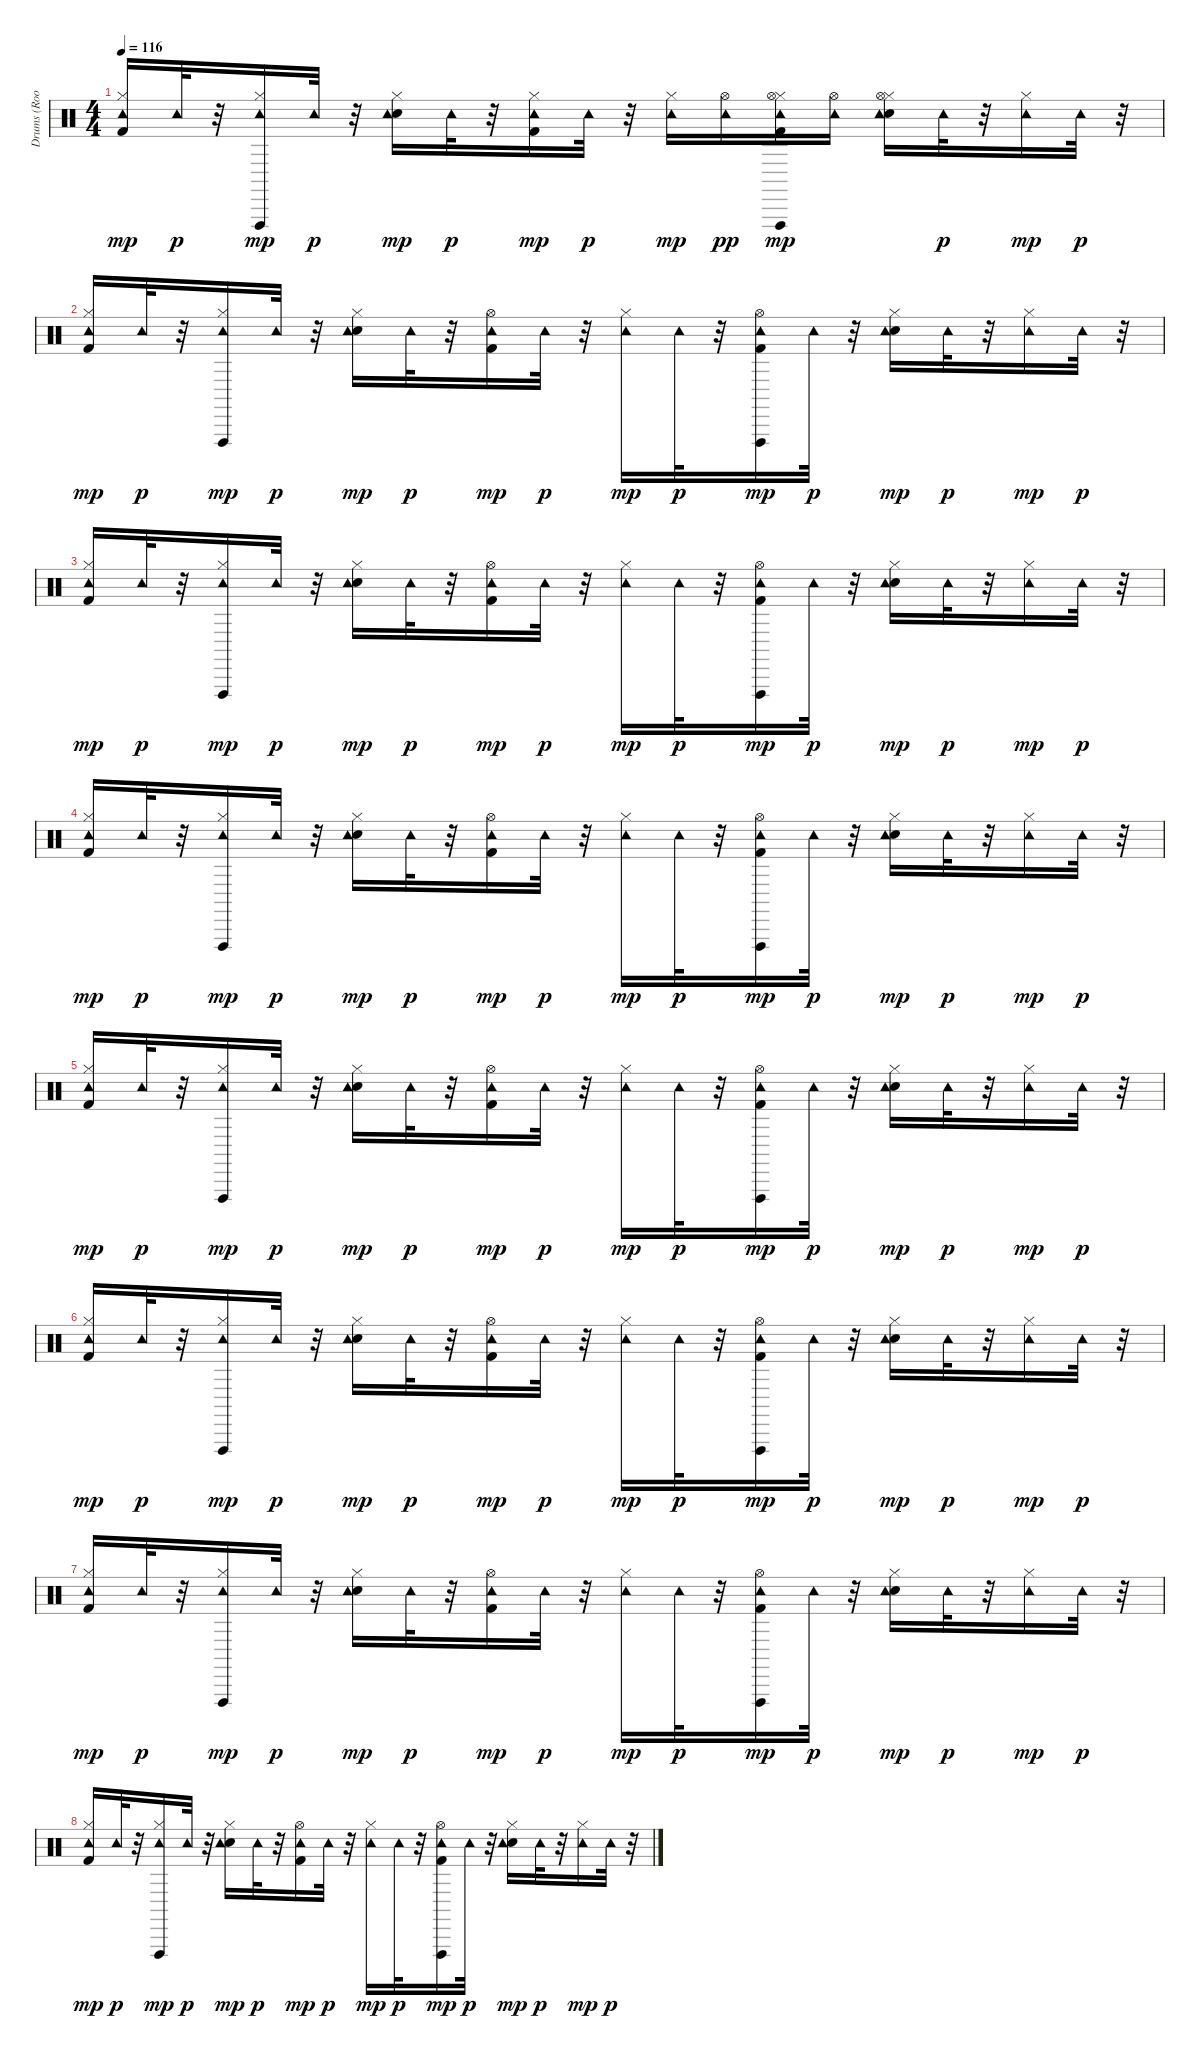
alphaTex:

\track ("Drums (Room Kit)    " "Drums (Roo") {instrument percussion}
\staff {score}
\articulation defaults
\ts (4 4)
\tempo 116
\clef neutral
\ks c
("Hi-Hat (closed)" "Kick (hit) 2" "Tambourine (hit)").16{dy mp} "Tambourine (hit)".32{dy p} r.32 ("Hi-Hat (closed)" "Tambourine (hit)" "Vibraslap (hit)").16{dy mp} "Tambourine (hit)".32{dy p} r.32 ("Hi-Hat (closed)" "Snare (hit) 2" "Tambourine (hit)").16{dy mp} "Tambourine (hit)".32{dy p} r.32 ("Hi-Hat (closed)" "Kick (hit) 2" "Tambourine (hit)").16{dy mp} "Tambourine (hit)".32{dy p} r.32 ("Hi-Hat (closed)" "Tambourine (hit)").16{dy mp} ("Tambourine (hit)" "Hi-Hat (open)").16{dy pp} ("Hi-Hat (closed)" "Kick (hit) 2" "Tambourine (hit)" "Hi-Hat (open)" "Vibraslap (hit)").16{dy mp} ("Tambourine (hit)" "Hi-Hat (open)").16 ("Hi-Hat (closed)" "Snare (hit) 2" "Tambourine (hit)" "Hi-Hat (open)").16 "Tambourine (hit)".32{dy p} r.32 ("Hi-Hat (closed)" "Tambourine (hit)").16{dy mp} "Tambourine (hit)".32{dy p} r.32 |
("Kick (hit) 2" "Hi-Hat (closed)" "Tambourine (hit)").16{dy mp} "Tambourine (hit)".32{dy p} r.32 ("Hi-Hat (closed)" "Tambourine (hit)" "Vibraslap (hit)").16{dy mp} "Tambourine (hit)".32{dy p} r.32 ("Snare (hit) 2" "Hi-Hat (closed)" "Tambourine (hit)").16{dy mp} "Tambourine (hit)".32{dy p} r.32 ("Kick (hit) 2" "Tambourine (hit)" "Hi-Hat (open)").16{dy mp} "Tambourine (hit)".32{dy p} r.32 ("Hi-Hat (closed)" "Tambourine (hit)").16{dy mp} "Tambourine (hit)".32{dy p} r.32 ("Kick (hit) 2" "Tambourine (hit)" "Vibraslap (hit)" "Hi-Hat (open)").16{dy mp} "Tambourine (hit)".32{dy p} r.32 ("Snare (hit) 2" "Hi-Hat (closed)" "Tambourine (hit)").16{dy mp} "Tambourine (hit)".32{dy p} r.32 ("Hi-Hat (closed)" "Tambourine (hit)").16{dy mp} "Tambourine (hit)".32{dy p} r.32 |
("Hi-Hat (closed)" "Kick (hit) 2" "Tambourine (hit)").16{dy mp} "Tambourine (hit)".32{dy p} r.32 ("Hi-Hat (closed)" "Tambourine (hit)" "Vibraslap (hit)").16{dy mp} "Tambourine (hit)".32{dy p} r.32 ("Hi-Hat (closed)" "Snare (hit) 2" "Tambourine (hit)").16{dy mp} "Tambourine (hit)".32{dy p} r.32 ("Kick (hit) 2" "Tambourine (hit)" "Hi-Hat (open)").16{dy mp} "Tambourine (hit)".32{dy p} r.32 ("Hi-Hat (closed)" "Tambourine (hit)").16{dy mp} "Tambourine (hit)".32{dy p} r.32 ("Kick (hit) 2" "Tambourine (hit)" "Vibraslap (hit)" "Hi-Hat (open)").16{dy mp} "Tambourine (hit)".32{dy p} r.32 ("Hi-Hat (closed)" "Snare (hit) 2" "Tambourine (hit)").16{dy mp} "Tambourine (hit)".32{dy p} r.32 ("Hi-Hat (closed)" "Tambourine (hit)").16{dy mp} "Tambourine (hit)".32{dy p} r.32 |
("Kick (hit) 2" "Hi-Hat (closed)" "Tambourine (hit)").16{dy mp} "Tambourine (hit)".32{dy p} r.32 ("Hi-Hat (closed)" "Tambourine (hit)" "Vibraslap (hit)").16{dy mp} "Tambourine (hit)".32{dy p} r.32 ("Snare (hit) 2" "Hi-Hat (closed)" "Tambourine (hit)").16{dy mp} "Tambourine (hit)".32{dy p} r.32 ("Kick (hit) 2" "Tambourine (hit)" "Hi-Hat (open)").16{dy mp} "Tambourine (hit)".32{dy p} r.32 ("Hi-Hat (closed)" "Tambourine (hit)").16{dy mp} "Tambourine (hit)".32{dy p} r.32 ("Kick (hit) 2" "Tambourine (hit)" "Vibraslap (hit)" "Hi-Hat (open)").16{dy mp} "Tambourine (hit)".32{dy p} r.32 ("Snare (hit) 2" "Hi-Hat (closed)" "Tambourine (hit)").16{dy mp} "Tambourine (hit)".32{dy p} r.32 ("Hi-Hat (closed)" "Tambourine (hit)").16{dy mp} "Tambourine (hit)".32{dy p} r.32 |
("Hi-Hat (closed)" "Kick (hit) 2" "Tambourine (hit)").16{dy mp} "Tambourine (hit)".32{dy p} r.32 ("Hi-Hat (closed)" "Tambourine (hit)" "Vibraslap (hit)").16{dy mp} "Tambourine (hit)".32{dy p} r.32 ("Snare (hit) 2" "Tambourine (hit)" "Hi-Hat (closed)").16{dy mp} "Tambourine (hit)".32{dy p} r.32 ("Kick (hit) 2" "Tambourine (hit)" "Hi-Hat (open)").16{dy mp} "Tambourine (hit)".32{dy p} r.32 ("Hi-Hat (closed)" "Tambourine (hit)").16{dy mp} "Tambourine (hit)".32{dy p} r.32 ("Kick (hit) 2" "Tambourine (hit)" "Vibraslap (hit)" "Hi-Hat (open)").16{dy mp} "Tambourine (hit)".32{dy p} r.32 ("Hi-Hat (closed)" "Snare (hit) 2" "Tambourine (hit)").16{dy mp} "Tambourine (hit)".32{dy p} r.32 ("Hi-Hat (closed)" "Tambourine (hit)").16{dy mp} "Tambourine (hit)".32{dy p} r.32 |
("Kick (hit) 2" "Hi-Hat (closed)" "Tambourine (hit)").16{dy mp} "Tambourine (hit)".32{dy p} r.32 ("Hi-Hat (closed)" "Tambourine (hit)" "Vibraslap (hit)").16{dy mp} "Tambourine (hit)".32{dy p} r.32 ("Snare (hit) 2" "Hi-Hat (closed)" "Tambourine (hit)").16{dy mp} "Tambourine (hit)".32{dy p} r.32 ("Kick (hit) 2" "Tambourine (hit)" "Hi-Hat (open)").16{dy mp} "Tambourine (hit)".32{dy p} r.32 ("Hi-Hat (closed)" "Tambourine (hit)").16{dy mp} "Tambourine (hit)".32{dy p} r.32 ("Kick (hit) 2" "Tambourine (hit)" "Vibraslap (hit)" "Hi-Hat (open)").16{dy mp} "Tambourine (hit)".32{dy p} r.32 ("Snare (hit) 2" "Hi-Hat (closed)" "Tambourine (hit)").16{dy mp} "Tambourine (hit)".32{dy p} r.32 ("Hi-Hat (closed)" "Tambourine (hit)").16{dy mp} "Tambourine (hit)".32{dy p} r.32 |
("Hi-Hat (closed)" "Kick (hit) 2" "Tambourine (hit)").16{dy mp} "Tambourine (hit)".32{dy p} r.32 ("Hi-Hat (closed)" "Tambourine (hit)" "Vibraslap (hit)").16{dy mp} "Tambourine (hit)".32{dy p} r.32 ("Hi-Hat (closed)" "Snare (hit) 2" "Tambourine (hit)").16{dy mp} "Tambourine (hit)".32{dy p} r.32 ("Kick (hit) 2" "Tambourine (hit)" "Hi-Hat (open)").16{dy mp} "Tambourine (hit)".32{dy p} r.32 ("Hi-Hat (closed)" "Tambourine (hit)").16{dy mp} "Tambourine (hit)".32{dy p} r.32 ("Kick (hit) 2" "Tambourine (hit)" "Vibraslap (hit)" "Hi-Hat (open)").16{dy mp} "Tambourine (hit)".32{dy p} r.32 ("Hi-Hat (closed)" "Snare (hit) 2" "Tambourine (hit)").16{dy mp} "Tambourine (hit)".32{dy p} r.32 ("Hi-Hat (closed)" "Tambourine (hit)").16{dy mp} "Tambourine (hit)".32{dy p} r.32 |
("Kick (hit) 2" "Hi-Hat (closed)" "Tambourine (hit)").16{dy mp} "Tambourine (hit)".32{dy p} r.32 ("Hi-Hat (closed)" "Tambourine (hit)" "Vibraslap (hit)").16{dy mp} "Tambourine (hit)".32{dy p} r.32 ("Snare (hit) 2" "Hi-Hat (closed)" "Tambourine (hit)").16{dy mp} "Tambourine (hit)".32{dy p} r.32 ("Kick (hit) 2" "Tambourine (hit)" "Hi-Hat (open)").16{dy mp} "Tambourine (hit)".32{dy p} r.32 ("Hi-Hat (closed)" "Tambourine (hit)").16{dy mp} "Tambourine (hit)".32{dy p} r.32 ("Kick (hit) 2" "Tambourine (hit)" "Vibraslap (hit)" "Hi-Hat (open)").16{dy mp} "Tambourine (hit)".32{dy p} r.32 ("Snare (hit) 2" "Hi-Hat (closed)" "Tambourine (hit)").16{dy mp} "Tambourine (hit)".32{dy p} r.32 ("Hi-Hat (closed)" "Tambourine (hit)").16{dy mp} "Tambourine (hit)".32{dy p} r.32
